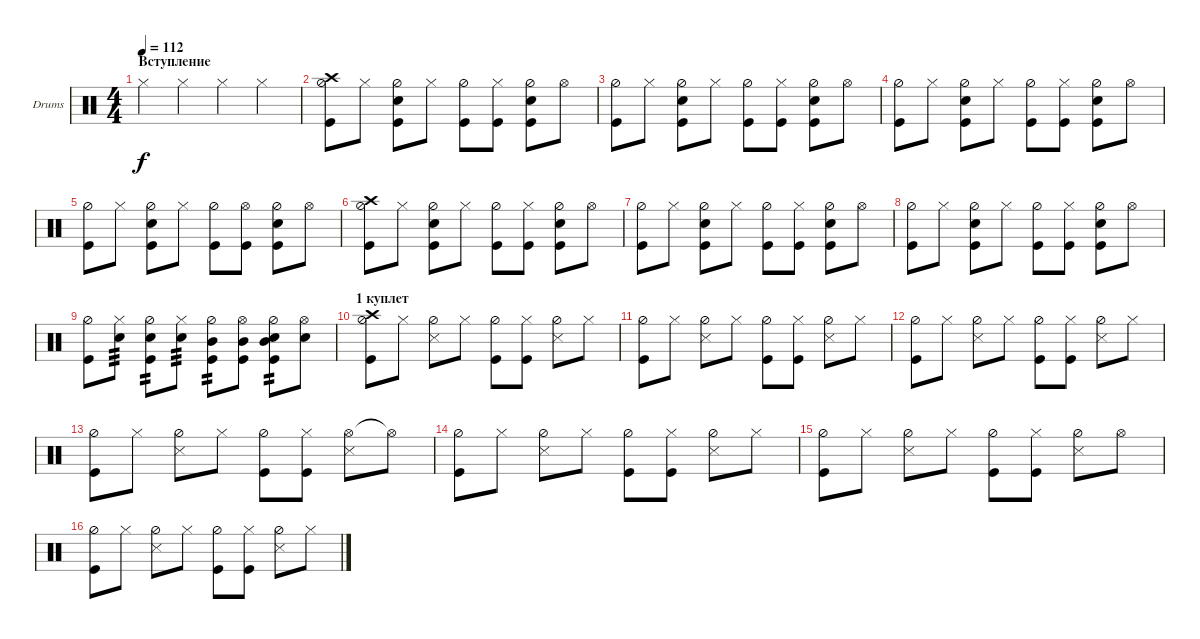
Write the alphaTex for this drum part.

\defaultSystemsLayout 4
\bracketExtendMode groupsimilarinstruments
\firstSystemTrackNameOrientation horizontal
\otherSystemsTrackNameOrientation horizontal
\track ("Drumkit" "Drums") {instrument percussion}
\staff {score}
\articulation defaults
\ts (4 4)
\section ("" "Вступление")
\tempo 112
\clef neutral
\ks c "Hi-Hat (closed)".4{dy f} "Hi-Hat (closed)".4 "Hi-Hat (closed)".4 "Hi-Hat (closed)".4
|
("Hi-Hat (half)" "Kick (hit)" "Crash high (hit)").8 "Hi-Hat (closed)".8 ("Hi-Hat (half)" "Snare (hit) 2" "Kick (hit)").8 "Hi-Hat (closed)".8 ("Hi-Hat (half)" "Kick (hit)").8 ("Hi-Hat (closed)" "Kick (hit)").8 ("Hi-Hat (half)" "Snare (hit) 2" "Kick (hit)").8 "Hi-Hat (open)".8 |
("Hi-Hat (half)" "Kick (hit)").8 "Hi-Hat (closed)".8 ("Hi-Hat (half)" "Snare (hit) 2" "Kick (hit)").8 "Hi-Hat (closed)".8 ("Hi-Hat (half)" "Kick (hit)").8 ("Hi-Hat (closed)" "Kick (hit)").8 ("Hi-Hat (half)" "Snare (hit) 2" "Kick (hit)").8 "Hi-Hat (open)".8 |
("Hi-Hat (half)" "Kick (hit)").8 "Hi-Hat (closed)".8 ("Hi-Hat (half)" "Snare (hit) 2" "Kick (hit)").8 "Hi-Hat (closed)".8 ("Hi-Hat (half)" "Kick (hit)").8 ("Hi-Hat (closed)" "Kick (hit)").8 ("Hi-Hat (half)" "Snare (hit) 2" "Kick (hit)").8 "Hi-Hat (open)".8 |
("Hi-Hat (half)" "Kick (hit)").8 "Hi-Hat (closed)".8 ("Hi-Hat (half)" "Snare (hit) 2" "Kick (hit)").8 "Hi-Hat (closed)".8 ("Hi-Hat (half)" "Kick (hit)").8 ("Hi-Hat (open)" "Kick (hit)").8 ("Hi-Hat (half)" "Snare (hit) 2" "Kick (hit)").8 "Hi-Hat (open)".8 |
("Hi-Hat (half)" "Kick (hit)" "Crash high (hit)").8 "Hi-Hat (closed)".8 ("Hi-Hat (half)" "Snare (hit) 2" "Kick (hit)").8 "Hi-Hat (closed)".8 ("Hi-Hat (half)" "Kick (hit)").8 ("Hi-Hat (closed)" "Kick (hit)").8 ("Hi-Hat (half)" "Snare (hit) 2" "Kick (hit)").8 "Hi-Hat (open)".8 |
("Hi-Hat (half)" "Kick (hit)").8 "Hi-Hat (closed)".8 ("Hi-Hat (half)" "Snare (hit) 2" "Kick (hit)").8 "Hi-Hat (closed)".8 ("Hi-Hat (half)" "Kick (hit)").8 ("Hi-Hat (closed)" "Kick (hit)").8 ("Hi-Hat (half)" "Snare (hit) 2" "Kick (hit)").8 "Hi-Hat (open)".8 |
("Hi-Hat (half)" "Kick (hit)").8 "Hi-Hat (closed)".8 ("Hi-Hat (half)" "Snare (hit) 2" "Kick (hit)").8 "Hi-Hat (closed)".8 ("Hi-Hat (half)" "Kick (hit)").8 ("Hi-Hat (closed)" "Kick (hit)").8 ("Hi-Hat (half)" "Snare (hit) 2" "Kick (hit)").8 "Hi-Hat (open)".8 |
("Hi-Hat (half)" "Kick (hit)").8 ("Hi-Hat (closed)" "Snare (hit) 2").8{tp 3} ("Hi-Hat (half)" "Snare (hit) 2" "Kick (hit)").8{tp 2} ("Hi-Hat (closed)" "Snare (hit) 2").8{tp 3} ("Hi-Hat (half)" "Kick (hit)" "Mid Tom (hit)").8{tp 2} ("Hi-Hat (open)" "Kick (hit)" "Mid Tom (hit)").8 ("Hi-Hat (half)" "Snare (hit) 2" "Kick (hit)" "Mid Tom (hit)").8{tp 2} ("Hi-Hat (open)" "Snare (hit) 2").8 |
\section ("" "1 куплет")
("Hi-Hat (half)" "Kick (hit)" "Crash high (hit)").8 "Hi-Hat (closed)".8 ("Hi-Hat (half)" "Snare (side stick) 3").8 "Hi-Hat (closed)".8 ("Hi-Hat (half)" "Kick (hit)").8 ("Kick (hit)" "Hi-Hat (closed)").8 ("Hi-Hat (half)" "Snare (side stick) 3").8 "Hi-Hat (closed)".8 |
("Hi-Hat (half)" "Kick (hit)").8 "Hi-Hat (closed)".8 ("Hi-Hat (half)" "Snare (side stick) 3").8 "Hi-Hat (closed)".8 ("Hi-Hat (half)" "Kick (hit)").8 ("Hi-Hat (closed)" "Kick (hit)").8 ("Hi-Hat (half)" "Snare (side stick) 3").8 "Hi-Hat (closed)".8 |
("Hi-Hat (half)" "Kick (hit)").8 "Hi-Hat (closed)".8 ("Hi-Hat (half)" "Snare (side stick) 3").8 "Hi-Hat (closed)".8 ("Hi-Hat (half)" "Kick (hit)").8 ("Hi-Hat (closed)" "Kick (hit)").8 ("Hi-Hat (half)" "Snare (side stick) 3").8 "Hi-Hat (closed)".8 |
("Hi-Hat (half)" "Kick (hit)").8 "Hi-Hat (closed)".8 ("Hi-Hat (half)" "Snare (side stick) 3").8 "Hi-Hat (closed)".8 ("Hi-Hat (half)" "Kick (hit)").8 ("Hi-Hat (closed)" "Kick (hit)").8 ("Hi-Hat (open)" "Snare (side stick) 3").8 "Hi-Hat (open)"{t}.8 |
("Hi-Hat (half)" "Kick (hit)").8 "Hi-Hat (closed)".8 ("Hi-Hat (half)" "Snare (side stick) 3").8 "Hi-Hat (closed)".8 ("Hi-Hat (half)" "Kick (hit)").8 ("Hi-Hat (closed)" "Kick (hit)").8 ("Hi-Hat (half)" "Snare (side stick) 3").8 "Hi-Hat (closed)".8 |
("Hi-Hat (half)" "Kick (hit)").8 "Hi-Hat (closed)".8 ("Hi-Hat (half)" "Snare (side stick) 3").8 "Hi-Hat (closed)".8 ("Hi-Hat (half)" "Kick (hit)").8 ("Hi-Hat (closed)" "Kick (hit)").8 ("Hi-Hat (half)" "Snare (side stick) 3").8 "Hi-Hat (open)".8 |
("Hi-Hat (half)" "Kick (hit)").8 "Hi-Hat (closed)".8 ("Hi-Hat (half)" "Snare (side stick) 3").8 "Hi-Hat (closed)".8 ("Hi-Hat (half)" "Kick (hit)").8 ("Hi-Hat (closed)" "Kick (hit)").8 ("Hi-Hat (half)" "Snare (side stick) 3").8 "Hi-Hat (closed)".8
